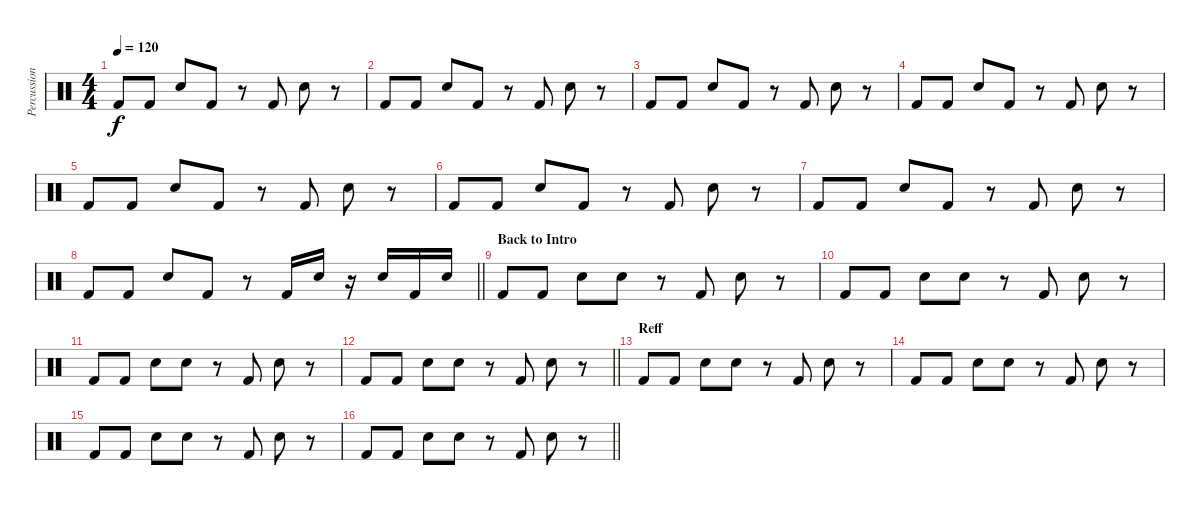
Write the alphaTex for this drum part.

\track ("Percussion" "Percussion") {instrument percussion}
\staff {score}
\articulation defaults
\ts (4 4)
\tempo 120
\clef neutral
\ks c "Kick (hit) 2".8{dy f} "Kick (hit) 2".8 "Snare (hit) 2".8 "Kick (hit) 2".8
r.8 "Kick (hit) 2".8 "Snare (hit) 2".8 r.8 |
"Kick (hit) 2".8 "Kick (hit) 2".8 "Snare (hit) 2".8 "Kick (hit) 2".8 r.8 "Kick (hit) 2".8 "Snare (hit) 2".8 r.8 |
"Kick (hit) 2".8 "Kick (hit) 2".8 "Snare (hit) 2".8 "Kick (hit) 2".8 r.8 "Kick (hit) 2".8 "Snare (hit) 2".8 r.8 |
"Kick (hit) 2".8 "Kick (hit) 2".8 "Snare (hit) 2".8 "Kick (hit) 2".8 r.8 "Kick (hit) 2".8 "Snare (hit) 2".8 r.8 |
"Kick (hit) 2".8 "Kick (hit) 2".8 "Snare (hit) 2".8 "Kick (hit) 2".8 r.8 "Kick (hit) 2".8 "Snare (hit) 2".8 r.8 |
"Kick (hit) 2".8 "Kick (hit) 2".8 "Snare (hit) 2".8 "Kick (hit) 2".8 r.8 "Kick (hit) 2".8 "Snare (hit) 2".8 r.8 |
"Kick (hit) 2".8 "Kick (hit) 2".8 "Snare (hit) 2".8 "Kick (hit) 2".8 r.8 "Kick (hit) 2".8 "Snare (hit) 2".8 r.8 |
\barLineRight lightlight "Kick (hit) 2".8 "Kick (hit) 2".8 "Snare (hit) 2".8 "Kick (hit) 2".8
r.8 "Kick (hit) 2".16 "Snare (hit) 2".16 r.16 "Snare (hit) 2".16 "Kick (hit) 2".16 "Snare (hit) 2".16 |
\section ("" "Back to Intro")
"Kick (hit) 2".8 "Kick (hit) 2".8 "Snare (hit) 2".8 "Snare (hit) 2".8 r.8 "Kick (hit) 2".8 "Snare (hit) 2".8 r.8 |
"Kick (hit) 2".8 "Kick (hit) 2".8 "Snare (hit) 2".8 "Snare (hit) 2".8 r.8 "Kick (hit) 2".8 "Snare (hit) 2".8 r.8 |
"Kick (hit) 2".8 "Kick (hit) 2".8 "Snare (hit) 2".8 "Snare (hit) 2".8 r.8 "Kick (hit) 2".8 "Snare (hit) 2".8 r.8 |
\barLineRight lightlight "Kick (hit) 2".8 "Kick (hit) 2".8 "Snare (hit) 2".8 "Snare (hit) 2".8
r.8 "Kick (hit) 2".8 "Snare (hit) 2".8 r.8 |
\section ("" "Reff")
"Kick (hit) 2".8 "Kick (hit) 2".8 "Snare (hit) 2".8 "Snare (hit) 2".8 r.8 "Kick (hit) 2".8 "Snare (hit) 2".8 r.8 |
"Kick (hit) 2".8 "Kick (hit) 2".8 "Snare (hit) 2".8 "Snare (hit) 2".8 r.8 "Kick (hit) 2".8 "Snare (hit) 2".8 r.8 |
"Kick (hit) 2".8 "Kick (hit) 2".8 "Snare (hit) 2".8 "Snare (hit) 2".8 r.8 "Kick (hit) 2".8 "Snare (hit) 2".8 r.8 |
\barLineRight lightlight "Kick (hit) 2".8 "Kick (hit) 2".8 "Snare (hit) 2".8 "Snare (hit) 2".8
r.8 "Kick (hit) 2".8 "Snare (hit) 2".8 r.8
